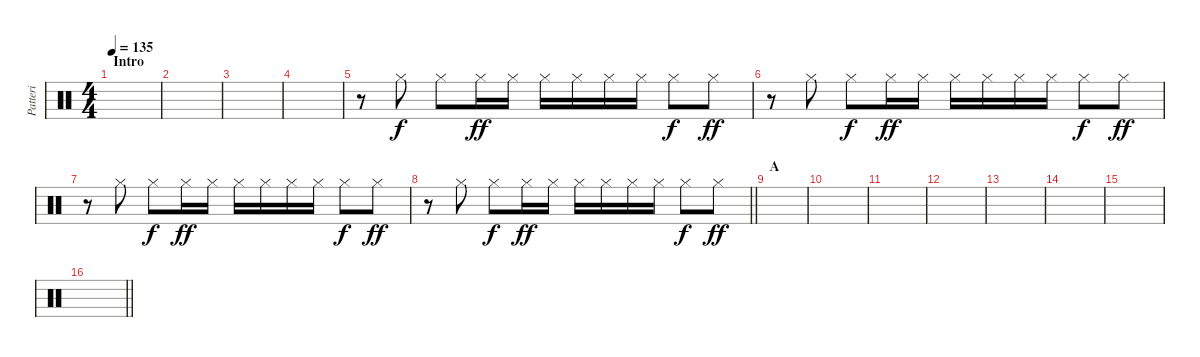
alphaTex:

\track ("Patteri" "Patteri") {instrument percussion}
\staff {score}
\articulation defaults
\ts (4 4)
\section ("" "Intro")
\tempo 135
\clef neutral
\ks c
|
|
|
|
r.8 "Hi-Hat (closed)".8 "Hi-Hat (closed)".8{dy f} "Hi-Hat (closed)".16{dy ff} "Hi-Hat (closed)".16 "Hi-Hat (closed)".16 "Hi-Hat (closed)".16 "Hi-Hat (closed)".16 "Hi-Hat (closed)".16 "Hi-Hat (closed)".8{dy f} "Hi-Hat (closed)".8{dy ff} |
r.8 "Hi-Hat (closed)".8 "Hi-Hat (closed)".8{dy f} "Hi-Hat (closed)".16{dy ff} "Hi-Hat (closed)".16 "Hi-Hat (closed)".16 "Hi-Hat (closed)".16 "Hi-Hat (closed)".16 "Hi-Hat (closed)".16 "Hi-Hat (closed)".8{dy f} "Hi-Hat (closed)".8{dy ff} |
r.8 "Hi-Hat (closed)".8 "Hi-Hat (closed)".8{dy f} "Hi-Hat (closed)".16{dy ff} "Hi-Hat (closed)".16 "Hi-Hat (closed)".16 "Hi-Hat (closed)".16 "Hi-Hat (closed)".16 "Hi-Hat (closed)".16 "Hi-Hat (closed)".8{dy f} "Hi-Hat (closed)".8{dy ff} |
\barLineRight lightlight
r.8 "Hi-Hat (closed)".8 "Hi-Hat (closed)".8{dy f} "Hi-Hat (closed)".16{dy ff} "Hi-Hat (closed)".16 "Hi-Hat (closed)".16 "Hi-Hat (closed)".16 "Hi-Hat (closed)".16 "Hi-Hat (closed)".16 "Hi-Hat (closed)".8{dy f} "Hi-Hat (closed)".8{dy ff} |
\section ("" "A")
|
|
|
|
|
|
|
\barLineRight lightlight
